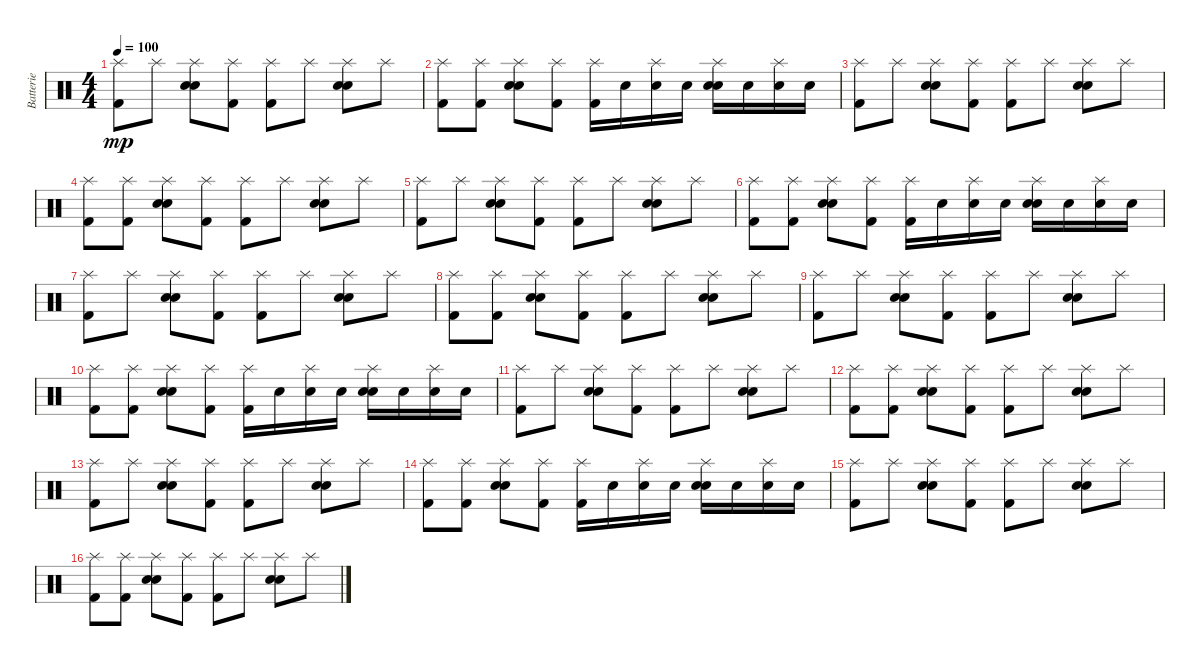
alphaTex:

\track ("Batterie" "Batterie") {instrument percussion}
\staff {score}
\articulation defaults
\ts (4 4)
\tempo 100
\clef neutral
\ks c
("Kick (hit) 2" "Splash (hit)").8{dy mp} "Splash (hit)".8 ("Hand Clap (hit)" "Electric Snare (hit)" "Splash (hit)").8 ("Kick (hit) 2" "Splash (hit)").8 ("Kick (hit) 2" "Splash (hit)").8 "Splash (hit)".8 ("Hand Clap (hit)" "Electric Snare (hit)" "Splash (hit)").8 "Splash (hit)".8 |
("Kick (hit) 2" "Splash (hit)").8 ("Kick (hit) 2" "Splash (hit)").8 ("Hand Clap (hit)" "Electric Snare (hit)" "Splash (hit)").8 ("Kick (hit) 2" "Splash (hit)").8 ("Kick (hit) 2" "Splash (hit)").16 "Electric Snare (hit)".16 ("Electric Snare (hit)" "Splash (hit)").16 "Electric Snare (hit)".16 ("Hand Clap (hit)" "Electric Snare (hit)" "Splash (hit)").16 "Electric Snare (hit)".16 ("Electric Snare (hit)" "Splash (hit)").16 "Electric Snare (hit)".16 |
("Kick (hit) 2" "Splash (hit)").8 "Splash (hit)".8 ("Hand Clap (hit)" "Electric Snare (hit)" "Splash (hit)").8 ("Kick (hit) 2" "Splash (hit)").8 ("Kick (hit) 2" "Splash (hit)").8 "Splash (hit)".8 ("Hand Clap (hit)" "Electric Snare (hit)" "Splash (hit)").8 "Splash (hit)".8 |
("Kick (hit) 2" "Splash (hit)").8 ("Kick (hit) 2" "Splash (hit)").8 ("Hand Clap (hit)" "Electric Snare (hit)" "Splash (hit)").8 ("Kick (hit) 2" "Splash (hit)").8 ("Kick (hit) 2" "Splash (hit)").8 "Splash (hit)".8 ("Hand Clap (hit)" "Electric Snare (hit)" "Splash (hit)").8 "Splash (hit)".8 |
("Kick (hit) 2" "Splash (hit)").8 "Splash (hit)".8 ("Hand Clap (hit)" "Electric Snare (hit)" "Splash (hit)").8 ("Kick (hit) 2" "Splash (hit)").8 ("Kick (hit) 2" "Splash (hit)").8 "Splash (hit)".8 ("Hand Clap (hit)" "Electric Snare (hit)" "Splash (hit)").8 "Splash (hit)".8 |
("Kick (hit) 2" "Splash (hit)").8 ("Kick (hit) 2" "Splash (hit)").8 ("Hand Clap (hit)" "Electric Snare (hit)" "Splash (hit)").8 ("Kick (hit) 2" "Splash (hit)").8 ("Kick (hit) 2" "Splash (hit)").16 "Electric Snare (hit)".16 ("Electric Snare (hit)" "Splash (hit)").16 "Electric Snare (hit)".16 ("Hand Clap (hit)" "Electric Snare (hit)" "Splash (hit)").16 "Electric Snare (hit)".16 ("Electric Snare (hit)" "Splash (hit)").16 "Electric Snare (hit)".16 |
("Kick (hit) 2" "Splash (hit)").8 "Splash (hit)".8 ("Hand Clap (hit)" "Electric Snare (hit)" "Splash (hit)").8 ("Kick (hit) 2" "Splash (hit)").8 ("Kick (hit) 2" "Splash (hit)").8 "Splash (hit)".8 ("Hand Clap (hit)" "Electric Snare (hit)" "Splash (hit)").8 "Splash (hit)".8 |
("Kick (hit) 2" "Splash (hit)").8 ("Kick (hit) 2" "Splash (hit)").8 ("Hand Clap (hit)" "Electric Snare (hit)" "Splash (hit)").8 ("Kick (hit) 2" "Splash (hit)").8 ("Kick (hit) 2" "Splash (hit)").8 "Splash (hit)".8 ("Hand Clap (hit)" "Electric Snare (hit)" "Splash (hit)").8 "Splash (hit)".8 |
("Kick (hit) 2" "Splash (hit)").8 "Splash (hit)".8 ("Hand Clap (hit)" "Electric Snare (hit)" "Splash (hit)").8 ("Kick (hit) 2" "Splash (hit)").8 ("Kick (hit) 2" "Splash (hit)").8 "Splash (hit)".8 ("Hand Clap (hit)" "Electric Snare (hit)" "Splash (hit)").8 "Splash (hit)".8 |
("Kick (hit) 2" "Splash (hit)").8 ("Kick (hit) 2" "Splash (hit)").8 ("Hand Clap (hit)" "Electric Snare (hit)" "Splash (hit)").8 ("Kick (hit) 2" "Splash (hit)").8 ("Kick (hit) 2" "Splash (hit)").16 "Electric Snare (hit)".16 ("Electric Snare (hit)" "Splash (hit)").16 "Electric Snare (hit)".16 ("Hand Clap (hit)" "Electric Snare (hit)" "Splash (hit)").16 "Electric Snare (hit)".16 ("Electric Snare (hit)" "Splash (hit)").16 "Electric Snare (hit)".16 |
("Kick (hit) 2" "Splash (hit)").8 "Splash (hit)".8 ("Hand Clap (hit)" "Electric Snare (hit)" "Splash (hit)").8 ("Kick (hit) 2" "Splash (hit)").8 ("Kick (hit) 2" "Splash (hit)").8 "Splash (hit)".8 ("Hand Clap (hit)" "Electric Snare (hit)" "Splash (hit)").8 "Splash (hit)".8 |
("Kick (hit) 2" "Splash (hit)").8 ("Kick (hit) 2" "Splash (hit)").8 ("Hand Clap (hit)" "Electric Snare (hit)" "Splash (hit)").8 ("Kick (hit) 2" "Splash (hit)").8 ("Kick (hit) 2" "Splash (hit)").8 "Splash (hit)".8 ("Hand Clap (hit)" "Electric Snare (hit)" "Splash (hit)").8 "Splash (hit)".8 |
("Kick (hit) 2" "Splash (hit)").8 "Splash (hit)".8 ("Hand Clap (hit)" "Electric Snare (hit)" "Splash (hit)").8 ("Kick (hit) 2" "Splash (hit)").8 ("Kick (hit) 2" "Splash (hit)").8 "Splash (hit)".8 ("Hand Clap (hit)" "Electric Snare (hit)" "Splash (hit)").8 "Splash (hit)".8 |
("Kick (hit) 2" "Splash (hit)").8 ("Kick (hit) 2" "Splash (hit)").8 ("Hand Clap (hit)" "Electric Snare (hit)" "Splash (hit)").8 ("Kick (hit) 2" "Splash (hit)").8 ("Kick (hit) 2" "Splash (hit)").16 "Electric Snare (hit)".16 ("Electric Snare (hit)" "Splash (hit)").16 "Electric Snare (hit)".16 ("Hand Clap (hit)" "Electric Snare (hit)" "Splash (hit)").16 "Electric Snare (hit)".16 ("Electric Snare (hit)" "Splash (hit)").16 "Electric Snare (hit)".16 |
("Kick (hit) 2" "Splash (hit)").8 "Splash (hit)".8 ("Hand Clap (hit)" "Electric Snare (hit)" "Splash (hit)").8 ("Kick (hit) 2" "Splash (hit)").8 ("Kick (hit) 2" "Splash (hit)").8 "Splash (hit)".8 ("Hand Clap (hit)" "Electric Snare (hit)" "Splash (hit)").8 "Splash (hit)".8 |
("Kick (hit) 2" "Splash (hit)").8 ("Kick (hit) 2" "Splash (hit)").8 ("Hand Clap (hit)" "Electric Snare (hit)" "Splash (hit)").8 ("Kick (hit) 2" "Splash (hit)").8 ("Kick (hit) 2" "Splash (hit)").8 "Splash (hit)".8 ("Hand Clap (hit)" "Electric Snare (hit)" "Splash (hit)").8 "Splash (hit)".8
